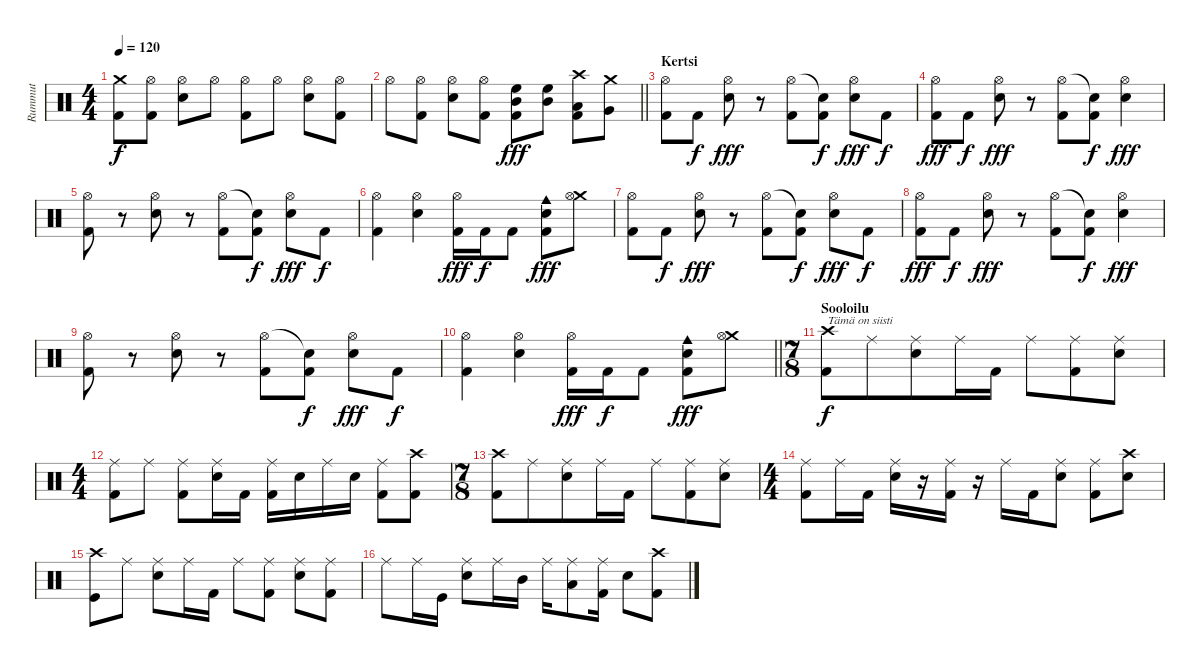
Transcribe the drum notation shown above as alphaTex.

\track ("Rummut" "Rummut") {instrument percussion}
\staff {score}
\articulation defaults
\ts (4 4)
\tempo 120
\clef neutral
\ks c
("Crash medium (hit)" "Kick (hit) 2").8{dy f} ("Hi-Hat (open)" "Kick (hit) 2").8 ("Hi-Hat (open)" "Snare (hit) 2").8 "Hi-Hat (open)".8 ("Hi-Hat (open)" "Kick (hit) 2").8 "Hi-Hat (open)".8 ("Hi-Hat (open)" "Snare (hit) 2").8 ("Hi-Hat (open)" "Kick (hit) 2").8 |
\barLineRight lightlight "Hi-Hat (open)".8
("Hi-Hat (open)" "Kick (hit) 2").8 ("Hi-Hat (open)" "Snare (hit) 2").8 ("Hi-Hat (open)" "Kick (hit) 2").8 ("Mid Tom (hit)" "High Floor Tom (hit)" "Kick (hit) 2").8{dy fff} ("Mid Tom (hit)" "High Floor Tom (hit)").8 ("Low Tom (hit)" "Kick (hit) 2" "Crash high (hit)").8 ("Very Low Tom (hit)" "Crash medium (hit)").8 |
\section ("" "Kertsi")
("Hi-Hat (open)" "Kick (hit) 2").8 "Kick (hit) 2".8{dy f} ("Hi-Hat (open)" "Snare (hit) 2").8{dy fff} r.8 ("Hi-Hat (open)" "Kick (hit) 2").8 ("Snare (hit)"{t} "Kick (hit) 2").8{dy f} ("Hi-Hat (open)" "Snare (hit) 2").8{dy fff} "Kick (hit) 2".8{dy f} |
("Hi-Hat (open)" "Kick (hit) 2").8{dy fff} "Kick (hit) 2".8{dy f} ("Hi-Hat (open)" "Snare (hit) 2").8{dy fff} r.8 ("Hi-Hat (open)" "Kick (hit) 2").8 ("Snare (hit)"{t} "Kick (hit) 2").8{dy f} ("Hi-Hat (open)" "Snare (hit) 2").4{dy fff} |
("Hi-Hat (open)" "Kick (hit) 2").8 r.8 ("Hi-Hat (open)" "Snare (hit) 2").8 r.8 ("Hi-Hat (open)" "Kick (hit) 2").8 ("Snare (hit)"{t} "Kick (hit) 2").8{dy f} ("Hi-Hat (open)" "Snare (hit) 2").8{dy fff} "Kick (hit) 2".8{dy f} |
("Hi-Hat (open)" "Kick (hit) 2").4 ("Hi-Hat (open)" "Snare (hit) 2").4 ("Hi-Hat (open)" "Kick (hit) 2").16{dy fff} "Kick (hit) 2".16{dy f} "Kick (hit) 2".8 ("Cowbell medium (hit)" "Snare (hit) 2" "Kick (hit) 2").8{dy fff} ("Crash medium (hit)" "Hi-Hat (open)").8 |
("Hi-Hat (open)" "Kick (hit) 2").8 "Kick (hit) 2".8{dy f} ("Hi-Hat (open)" "Snare (hit) 2").8{dy fff} r.8 ("Hi-Hat (open)" "Kick (hit) 2").8 ("Snare (hit)"{t} "Kick (hit) 2").8{dy f} ("Hi-Hat (open)" "Snare (hit) 2").8{dy fff} "Kick (hit) 2".8{dy f} |
("Hi-Hat (open)" "Kick (hit) 2").8{dy fff} "Kick (hit) 2".8{dy f} ("Hi-Hat (open)" "Snare (hit) 2").8{dy fff} r.8 ("Hi-Hat (open)" "Kick (hit) 2").8 ("Snare (hit)"{t} "Kick (hit) 2").8{dy f} ("Hi-Hat (open)" "Snare (hit) 2").4{dy fff} |
("Hi-Hat (open)" "Kick (hit) 2").8 r.8 ("Hi-Hat (open)" "Snare (hit) 2").8 r.8 ("Hi-Hat (open)" "Kick (hit) 2").8 ("Snare (hit)"{t} "Kick (hit) 2").8{dy f} ("Hi-Hat (open)" "Snare (hit) 2").8{dy fff} "Kick (hit) 2".8{dy f} |
\barLineRight lightlight
("Hi-Hat (open)" "Kick (hit) 2").4 ("Hi-Hat (open)" "Snare (hit) 2").4 ("Hi-Hat (open)" "Kick (hit) 2").16{dy fff} "Kick (hit) 2".16{dy f} "Kick (hit) 2".8 ("Cowbell medium (hit)" "Snare (hit) 2" "Kick (hit) 2").8{dy fff} ("Crash medium (hit)" "Hi-Hat (open)").8 |
\ts (7 8)
\section ("" "Sooloilu")
("Crash high (hit)" "Kick (hit) 2").8{txt "Tämä on siisti" dy f} "Ride (middle)".8 ("Ride (middle)" "Snare (hit) 2").8 "Ride (middle)".16 "Kick (hit) 2".16 "Ride (middle)".8 ("Ride (middle)" "Kick (hit) 2").8 ("Ride (middle)" "Snare (hit) 2").8 |
\ts (4 4)
("Ride (middle)" "Kick (hit) 2").8 "Ride (middle)".8 ("Ride (middle)" "Kick (hit) 2").8 ("Ride (middle)" "Snare (hit) 2").16 "Kick (hit) 2".16 ("Ride (middle)" "Kick (hit) 2").16 "Snare (hit) 2".16 "Ride (middle)".16 "Snare (hit) 2".16 ("Ride (middle)" "Kick (hit) 2").8 ("Crash high (hit)" "Kick (hit) 2").8 |
\ts (7 8)
("Crash high (hit)" "Kick (hit) 2").8 "Ride (middle)".8 ("Ride (middle)" "Snare (hit) 2").8 "Ride (middle)".16 "Kick (hit) 2".16 "Ride (middle)".8 ("Ride (middle)" "Kick (hit) 2").8 ("Ride (middle)" "Snare (hit) 2").8 |
\ts (4 4)
("Ride (middle)" "Kick (hit) 2").8 "Ride (middle)".16 "Kick (hit) 2".16 ("Ride (middle)" "Snare (hit) 2").16 r.16 ("Ride (middle)" "Kick (hit) 2").16 r.16 "Ride (middle)".16 "Kick (hit) 2".16 ("Ride (middle)" "Snare (hit) 2").8 ("Ride (middle)" "Kick (hit) 2").8 ("Crash high (hit)" "Snare (hit) 2").8 |
("Crash high (hit)" "Kick (hit)").8 "Ride (middle)".8 ("Ride (middle)" "Snare (hit) 2").8 "Ride (middle)".16 "Kick (hit) 2".16 "Ride (middle)".8 ("Ride (middle)" "Kick (hit) 2").8 ("Ride (middle)" "Snare (hit) 2").8 ("Ride (middle)" "Kick (hit) 2").8 |
"Ride (middle)".8 "Ride (middle)".16 "Kick (hit)".16 ("Ride (middle)" "Snare (hit) 2").8 "Ride (middle)".16 "Mid Tom (hit)".16 "Ride (middle)".16 ("Ride (middle)" "Low Tom (hit)").8 ("Ride (middle)" "Kick (hit) 2").16 "Snare (hit) 2".8 ("Crash high (hit)" "Kick (hit) 2").8
